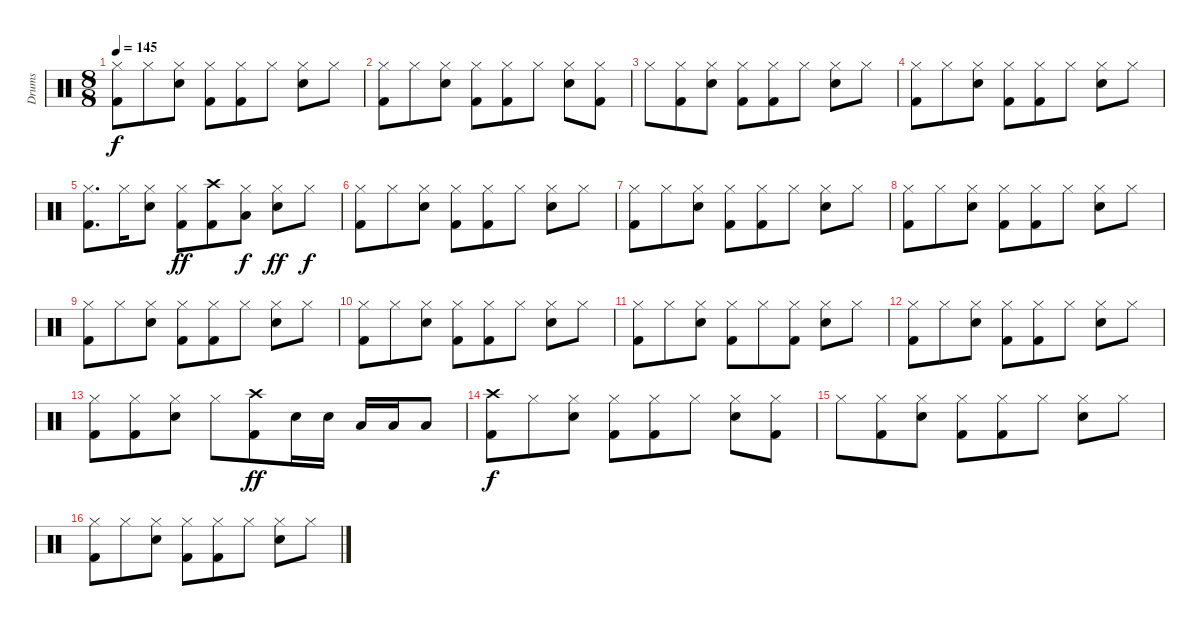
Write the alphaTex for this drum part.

\track ("Drums" "Drums") {instrument percussion}
\staff {score}
\articulation defaults
\ts (8 8)
\tempo 145
\clef neutral
\ks c
("Kick (hit) 2" "Hi-Hat (closed)").8{dy f} "Hi-Hat (closed)".8 ("Snare (hit) 2" "Hi-Hat (closed)").8 ("Kick (hit) 2" "Hi-Hat (closed)").8 ("Kick (hit) 2" "Hi-Hat (closed)").8 "Hi-Hat (closed)".8 ("Snare (hit) 2" "Hi-Hat (closed)").8 "Hi-Hat (closed)".8 |
("Kick (hit) 2" "Hi-Hat (closed)").8 "Hi-Hat (closed)".8 ("Snare (hit) 2" "Hi-Hat (closed)").8 ("Kick (hit) 2" "Hi-Hat (closed)").8 ("Kick (hit) 2" "Hi-Hat (closed)").8 "Hi-Hat (closed)".8 ("Snare (hit) 2" "Hi-Hat (closed)").8 ("Kick (hit) 2" "Hi-Hat (closed)").8 |
"Hi-Hat (closed)".8 ("Kick (hit) 2" "Hi-Hat (closed)").8 ("Snare (hit) 2" "Hi-Hat (closed)").8 ("Kick (hit) 2" "Hi-Hat (closed)").8 ("Kick (hit) 2" "Hi-Hat (closed)").8 "Hi-Hat (closed)".8 ("Snare (hit) 2" "Hi-Hat (closed)").8 "Hi-Hat (closed)".8 |
("Kick (hit) 2" "Hi-Hat (closed)").8 "Hi-Hat (closed)".8 ("Snare (hit) 2" "Hi-Hat (closed)").8 ("Kick (hit) 2" "Hi-Hat (closed)").8 ("Kick (hit) 2" "Hi-Hat (closed)").8 "Hi-Hat (closed)".8 ("Snare (hit) 2" "Hi-Hat (closed)").8 "Hi-Hat (closed)".8 |
("Kick (hit) 2" "Hi-Hat (closed)").8{d} "Hi-Hat (closed)".16 ("Snare (hit) 2" "Hi-Hat (closed)").8 ("Kick (hit) 2" "Hi-Hat (closed)").8{dy ff} ("Kick (hit) 2" "Crash high (hit)").8 ("Low Floor Tom (hit)" "Hi-Hat (closed)").8{dy f} ("Snare (hit) 2" "Hi-Hat (closed)").8{dy ff} "Hi-Hat (closed)".8{dy f} |
("Kick (hit) 2" "Hi-Hat (closed)").8 "Hi-Hat (closed)".8 ("Snare (hit) 2" "Hi-Hat (closed)").8 ("Kick (hit) 2" "Hi-Hat (closed)").8 ("Kick (hit) 2" "Hi-Hat (closed)").8 "Hi-Hat (closed)".8 ("Snare (hit) 2" "Hi-Hat (closed)").8 "Hi-Hat (closed)".8 |
("Kick (hit) 2" "Hi-Hat (closed)").8 "Hi-Hat (closed)".8 ("Snare (hit) 2" "Hi-Hat (closed)").8 ("Kick (hit) 2" "Hi-Hat (closed)").8 ("Kick (hit) 2" "Hi-Hat (closed)").8 "Hi-Hat (closed)".8 ("Snare (hit) 2" "Hi-Hat (closed)").8 "Hi-Hat (closed)".8 |
("Kick (hit) 2" "Hi-Hat (closed)").8 "Hi-Hat (closed)".8 ("Snare (hit) 2" "Hi-Hat (closed)").8 ("Kick (hit) 2" "Hi-Hat (closed)").8 ("Kick (hit) 2" "Hi-Hat (closed)").8 "Hi-Hat (closed)".8 ("Snare (hit) 2" "Hi-Hat (closed)").8 "Hi-Hat (closed)".8 |
("Kick (hit) 2" "Hi-Hat (closed)").8 "Hi-Hat (closed)".8 ("Snare (hit) 2" "Hi-Hat (closed)").8 ("Kick (hit) 2" "Hi-Hat (closed)").8 ("Kick (hit) 2" "Hi-Hat (closed)").8 "Hi-Hat (closed)".8 ("Snare (hit) 2" "Hi-Hat (closed)").8 "Hi-Hat (closed)".8 |
("Kick (hit) 2" "Hi-Hat (closed)").8 "Hi-Hat (closed)".8 ("Snare (hit) 2" "Hi-Hat (closed)").8 ("Kick (hit) 2" "Hi-Hat (closed)").8 ("Kick (hit) 2" "Hi-Hat (closed)").8 "Hi-Hat (closed)".8 ("Snare (hit) 2" "Hi-Hat (closed)").8 "Hi-Hat (closed)".8 |
("Kick (hit) 2" "Hi-Hat (closed)").8 "Hi-Hat (closed)".8 ("Snare (hit) 2" "Hi-Hat (closed)").8 ("Kick (hit) 2" "Hi-Hat (closed)").8 "Hi-Hat (closed)".8 ("Kick (hit) 2" "Hi-Hat (closed)").8 ("Snare (hit) 2" "Hi-Hat (closed)").8 "Hi-Hat (closed)".8 |
("Kick (hit) 2" "Hi-Hat (closed)").8 "Hi-Hat (closed)".8 ("Snare (hit) 2" "Hi-Hat (closed)").8 ("Kick (hit) 2" "Hi-Hat (closed)").8 ("Kick (hit) 2" "Hi-Hat (closed)").8 "Hi-Hat (closed)".8 ("Snare (hit) 2" "Hi-Hat (closed)").8 "Hi-Hat (closed)".8 |
("Kick (hit) 2" "Hi-Hat (closed)").8 ("Kick (hit) 2" "Hi-Hat (closed)").8 ("Snare (hit) 2" "Hi-Hat (closed)").8 "Hi-Hat (closed)".8 ("Kick (hit) 2" "Crash high (hit)").8{dy ff} "Snare (hit) 2".16 "Snare (hit) 2".16 "Low Floor Tom (hit)".16 "Low Floor Tom (hit)".16 "Low Tom (hit)".8 |
("Kick (hit) 2" "Crash high (hit)").8{dy f} "Hi-Hat (closed)".8 ("Snare (hit) 2" "Hi-Hat (closed)").8 ("Kick (hit) 2" "Hi-Hat (closed)").8 ("Kick (hit) 2" "Hi-Hat (closed)").8 "Hi-Hat (closed)".8 ("Snare (hit) 2" "Hi-Hat (closed)").8 ("Kick (hit) 2" "Hi-Hat (closed)").8 |
"Hi-Hat (closed)".8 ("Kick (hit) 2" "Hi-Hat (closed)").8 ("Snare (hit) 2" "Hi-Hat (closed)").8 ("Kick (hit) 2" "Hi-Hat (closed)").8 ("Kick (hit) 2" "Hi-Hat (closed)").8 "Hi-Hat (closed)".8 ("Snare (hit) 2" "Hi-Hat (closed)").8 "Hi-Hat (closed)".8 |
("Kick (hit) 2" "Hi-Hat (closed)").8 "Hi-Hat (closed)".8 ("Snare (hit) 2" "Hi-Hat (closed)").8 ("Kick (hit) 2" "Hi-Hat (closed)").8 ("Kick (hit) 2" "Hi-Hat (closed)").8 "Hi-Hat (closed)".8 ("Snare (hit) 2" "Hi-Hat (closed)").8 "Hi-Hat (closed)".8
